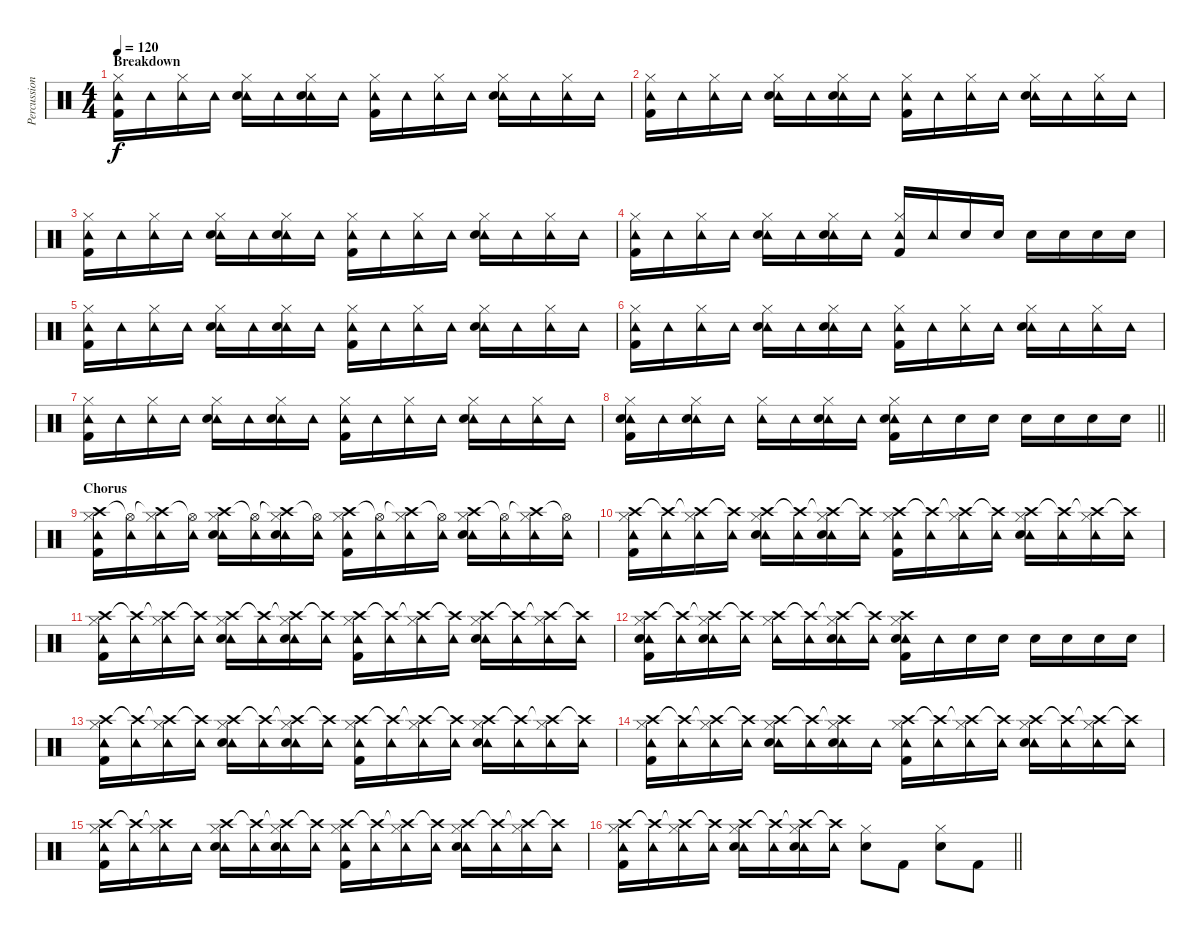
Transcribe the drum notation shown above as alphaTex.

\track ("Percussion" "Percussion") {instrument percussion}
\staff {score}
\articulation defaults
\ts (4 4)
\section ("" "Breakdown")
\tempo 120
\clef neutral
\ks c
("Tambourine (hit)" "Hi-Hat (closed)" "Kick (hit) 2").16{dy f} "Tambourine (hit)".16 ("Tambourine (hit)" "Hi-Hat (closed)").16 "Tambourine (hit)".16 ("Tambourine (hit)" "Hi-Hat (closed)" "Snare (hit) 2").16 "Tambourine (hit)".16 ("Tambourine (hit)" "Hi-Hat (closed)" "Snare (hit) 2").16 "Tambourine (hit)".16 ("Tambourine (hit)" "Hi-Hat (closed)" "Kick (hit) 2").16 "Tambourine (hit)".16 ("Tambourine (hit)" "Hi-Hat (closed)").16 "Tambourine (hit)".16 ("Tambourine (hit)" "Hi-Hat (closed)" "Snare (hit) 2").16 "Tambourine (hit)".16 ("Tambourine (hit)" "Hi-Hat (closed)").16 "Tambourine (hit)".16 |
("Tambourine (hit)" "Hi-Hat (closed)" "Kick (hit) 2").16 "Tambourine (hit)".16 ("Tambourine (hit)" "Hi-Hat (closed)").16 "Tambourine (hit)".16 ("Tambourine (hit)" "Hi-Hat (closed)" "Snare (hit) 2").16 "Tambourine (hit)".16 ("Tambourine (hit)" "Hi-Hat (closed)" "Snare (hit) 2").16 "Tambourine (hit)".16 ("Tambourine (hit)" "Hi-Hat (closed)" "Kick (hit) 2").16 "Tambourine (hit)".16 ("Tambourine (hit)" "Hi-Hat (closed)").16 "Tambourine (hit)".16 ("Tambourine (hit)" "Hi-Hat (closed)" "Snare (hit) 2").16 "Tambourine (hit)".16 ("Tambourine (hit)" "Hi-Hat (closed)").16 "Tambourine (hit)".16 |
("Tambourine (hit)" "Hi-Hat (closed)" "Kick (hit) 2").16 "Tambourine (hit)".16 ("Tambourine (hit)" "Hi-Hat (closed)").16 "Tambourine (hit)".16 ("Tambourine (hit)" "Hi-Hat (closed)" "Snare (hit) 2").16 "Tambourine (hit)".16 ("Tambourine (hit)" "Hi-Hat (closed)" "Snare (hit) 2").16 "Tambourine (hit)".16 ("Tambourine (hit)" "Hi-Hat (closed)" "Kick (hit) 2").16 "Tambourine (hit)".16 ("Tambourine (hit)" "Hi-Hat (closed)").16 "Tambourine (hit)".16 ("Tambourine (hit)" "Hi-Hat (closed)" "Snare (hit) 2").16 "Tambourine (hit)".16 ("Tambourine (hit)" "Hi-Hat (closed)").16 "Tambourine (hit)".16 |
("Tambourine (hit)" "Hi-Hat (closed)" "Kick (hit) 2").16 "Tambourine (hit)".16 ("Tambourine (hit)" "Hi-Hat (closed)").16 "Tambourine (hit)".16 ("Tambourine (hit)" "Hi-Hat (closed)" "Snare (hit) 2").16 "Tambourine (hit)".16 ("Tambourine (hit)" "Hi-Hat (closed)" "Snare (hit) 2").16 "Tambourine (hit)".16 ("Tambourine (hit)" "Hi-Hat (closed)" "Kick (hit) 2").16 "Tambourine (hit)".16 "Snare (hit) 2".16 "Snare (hit) 2".16 "Snare (hit) 2".16 "Snare (hit) 2".16 "Snare (hit) 2".16 "Snare (hit) 2".16 |
("Tambourine (hit)" "Hi-Hat (closed)" "Kick (hit) 2").16 "Tambourine (hit)".16 ("Tambourine (hit)" "Hi-Hat (closed)").16 "Tambourine (hit)".16 ("Tambourine (hit)" "Hi-Hat (closed)" "Snare (hit) 2").16 "Tambourine (hit)".16 ("Tambourine (hit)" "Hi-Hat (closed)" "Snare (hit) 2").16 "Tambourine (hit)".16 ("Tambourine (hit)" "Hi-Hat (closed)" "Kick (hit) 2").16 "Tambourine (hit)".16 ("Tambourine (hit)" "Hi-Hat (closed)").16 "Tambourine (hit)".16 ("Tambourine (hit)" "Hi-Hat (closed)" "Snare (hit) 2").16 "Tambourine (hit)".16 ("Tambourine (hit)" "Hi-Hat (closed)").16 "Tambourine (hit)".16 |
("Tambourine (hit)" "Hi-Hat (closed)" "Kick (hit) 2").16 "Tambourine (hit)".16 ("Tambourine (hit)" "Hi-Hat (closed)").16 "Tambourine (hit)".16 ("Tambourine (hit)" "Hi-Hat (closed)" "Snare (hit) 2").16 "Tambourine (hit)".16 ("Tambourine (hit)" "Hi-Hat (closed)" "Snare (hit) 2").16 "Tambourine (hit)".16 ("Tambourine (hit)" "Hi-Hat (closed)" "Kick (hit) 2").16 "Tambourine (hit)".16 ("Tambourine (hit)" "Hi-Hat (closed)").16 "Tambourine (hit)".16 ("Tambourine (hit)" "Hi-Hat (closed)" "Snare (hit) 2").16 "Tambourine (hit)".16 ("Tambourine (hit)" "Hi-Hat (closed)").16 "Tambourine (hit)".16 |
("Tambourine (hit)" "Hi-Hat (closed)" "Kick (hit) 2").16 "Tambourine (hit)".16 ("Tambourine (hit)" "Hi-Hat (closed)").16 "Tambourine (hit)".16 ("Tambourine (hit)" "Hi-Hat (closed)" "Snare (hit) 2").16 "Tambourine (hit)".16 ("Tambourine (hit)" "Hi-Hat (closed)" "Snare (hit) 2").16 "Tambourine (hit)".16 ("Tambourine (hit)" "Hi-Hat (closed)" "Kick (hit) 2").16 "Tambourine (hit)".16 ("Tambourine (hit)" "Hi-Hat (closed)").16 "Tambourine (hit)".16 ("Tambourine (hit)" "Hi-Hat (closed)" "Snare (hit) 2").16 "Tambourine (hit)".16 ("Tambourine (hit)" "Hi-Hat (closed)").16 "Tambourine (hit)".16 |
\barLineRight lightlight
("Tambourine (hit)" "Hi-Hat (closed)" "Snare (hit) 2" "Kick (hit) 2").16 "Tambourine (hit)".16 ("Tambourine (hit)" "Hi-Hat (closed)" "Snare (hit) 2").16 "Tambourine (hit)".16 ("Tambourine (hit)" "Hi-Hat (closed)").16 "Tambourine (hit)".16 ("Tambourine (hit)" "Hi-Hat (closed)" "Snare (hit) 2").16 "Tambourine (hit)".16 ("Tambourine (hit)" "Hi-Hat (closed)" "Snare (hit) 2" "Kick (hit) 2").16 "Tambourine (hit)".16 "Snare (hit) 2".16 "Snare (hit) 2".16 "Snare (hit) 2".16 "Snare (hit) 2".16 "Snare (hit) 2".16 "Snare (hit) 2".16 |
\section ("" "Chorus")
("Crash high (hit)" "Tambourine (hit)" "Hi-Hat (closed)" "Kick (hit) 2").16 ("Hi-Hat (open)"{t} "Tambourine (hit)").16 ("Crash high (hit)"{t} "Tambourine (hit)" "Hi-Hat (closed)").16 ("Hi-Hat (open)"{t} "Tambourine (hit)").16 ("Crash high (hit)" "Tambourine (hit)" "Hi-Hat (closed)" "Snare (hit) 2").16 ("Hi-Hat (open)"{t} "Tambourine (hit)").16 ("Crash high (hit)"{t} "Tambourine (hit)" "Hi-Hat (closed)" "Snare (hit) 2").16 ("Hi-Hat (open)"{t} "Tambourine (hit)").16 ("Crash high (hit)" "Tambourine (hit)" "Hi-Hat (closed)" "Kick (hit) 2").16 ("Hi-Hat (open)"{t} "Tambourine (hit)").16 ("Crash high (hit)"{t} "Tambourine (hit)" "Hi-Hat (closed)").16 ("Hi-Hat (open)"{t} "Tambourine (hit)").16 ("Crash high (hit)" "Tambourine (hit)" "Hi-Hat (closed)" "Snare (hit) 2").16 ("Hi-Hat (open)"{t} "Tambourine (hit)").16 ("Crash high (hit)"{t} "Tambourine (hit)" "Hi-Hat (closed)").16 ("Hi-Hat (open)"{t} "Tambourine (hit)").16 |
("Crash high (hit)" "Tambourine (hit)" "Hi-Hat (closed)" "Kick (hit) 2").16 ("Crash high (hit)"{t} "Tambourine (hit)").16 ("Crash high (hit)"{t} "Tambourine (hit)" "Hi-Hat (closed)").16 ("Crash high (hit)"{t} "Tambourine (hit)").16 ("Crash high (hit)" "Tambourine (hit)" "Hi-Hat (closed)" "Snare (hit) 2").16 ("Crash high (hit)"{t} "Tambourine (hit)").16 ("Crash high (hit)"{t} "Tambourine (hit)" "Hi-Hat (closed)" "Snare (hit) 2").16 ("Crash high (hit)"{t} "Tambourine (hit)").16 ("Crash high (hit)" "Tambourine (hit)" "Hi-Hat (closed)" "Kick (hit) 2").16 ("Crash high (hit)"{t} "Tambourine (hit)").16 ("Crash high (hit)"{t} "Tambourine (hit)" "Hi-Hat (closed)").16 ("Crash high (hit)"{t} "Tambourine (hit)").16 ("Crash high (hit)" "Tambourine (hit)" "Hi-Hat (closed)" "Snare (hit) 2").16 ("Crash high (hit)"{t} "Tambourine (hit)").16 ("Crash high (hit)"{t} "Tambourine (hit)" "Hi-Hat (closed)").16 ("Crash high (hit)"{t} "Tambourine (hit)").16 |
("Crash high (hit)" "Tambourine (hit)" "Hi-Hat (closed)" "Kick (hit) 2").16 ("Crash high (hit)"{t} "Tambourine (hit)").16 ("Crash high (hit)"{t} "Tambourine (hit)" "Hi-Hat (closed)").16 ("Crash high (hit)"{t} "Tambourine (hit)").16 ("Crash high (hit)" "Tambourine (hit)" "Hi-Hat (closed)" "Snare (hit) 2").16 ("Crash high (hit)"{t} "Tambourine (hit)").16 ("Crash high (hit)"{t} "Tambourine (hit)" "Hi-Hat (closed)" "Snare (hit) 2").16 ("Crash high (hit)"{t} "Tambourine (hit)").16 ("Crash high (hit)" "Tambourine (hit)" "Hi-Hat (closed)" "Kick (hit) 2").16 ("Crash high (hit)"{t} "Tambourine (hit)").16 ("Crash high (hit)"{t} "Tambourine (hit)" "Hi-Hat (closed)").16 ("Crash high (hit)"{t} "Tambourine (hit)").16 ("Crash high (hit)" "Tambourine (hit)" "Hi-Hat (closed)" "Snare (hit) 2").16 ("Crash high (hit)"{t} "Tambourine (hit)").16 ("Crash high (hit)"{t} "Tambourine (hit)" "Hi-Hat (closed)").16 ("Crash high (hit)"{t} "Tambourine (hit)").16 |
("Crash high (hit)" "Tambourine (hit)" "Hi-Hat (closed)" "Snare (hit) 2" "Kick (hit) 2").16 ("Crash high (hit)"{t} "Tambourine (hit)").16 ("Crash high (hit)"{t} "Tambourine (hit)" "Hi-Hat (closed)" "Snare (hit) 2").16 ("Crash high (hit)"{t} "Tambourine (hit)").16 ("Crash high (hit)" "Tambourine (hit)" "Hi-Hat (closed)").16 ("Crash high (hit)"{t} "Tambourine (hit)").16 ("Crash high (hit)"{t} "Tambourine (hit)" "Hi-Hat (closed)" "Snare (hit) 2").16 ("Crash high (hit)"{t} "Tambourine (hit)").16 ("Crash high (hit)" "Tambourine (hit)" "Hi-Hat (closed)" "Snare (hit) 2" "Kick (hit) 2").16 "Tambourine (hit)".16 "Snare (hit) 2".16 "Snare (hit) 2".16 "Snare (hit) 2".16 "Snare (hit) 2".16 "Snare (hit) 2".16 "Snare (hit) 2".16 |
("Crash high (hit)" "Tambourine (hit)" "Hi-Hat (closed)" "Kick (hit) 2").16 ("Crash high (hit)"{t} "Tambourine (hit)").16 ("Crash high (hit)"{t} "Tambourine (hit)" "Hi-Hat (closed)").16 ("Crash high (hit)"{t} "Tambourine (hit)").16 ("Crash high (hit)" "Tambourine (hit)" "Hi-Hat (closed)" "Snare (hit) 2").16 ("Crash high (hit)"{t} "Tambourine (hit)").16 ("Crash high (hit)"{t} "Tambourine (hit)" "Hi-Hat (closed)" "Snare (hit) 2").16 ("Crash high (hit)"{t} "Tambourine (hit)").16 ("Crash high (hit)" "Tambourine (hit)" "Hi-Hat (closed)" "Kick (hit) 2").16 ("Crash high (hit)"{t} "Tambourine (hit)").16 ("Crash high (hit)"{t} "Tambourine (hit)" "Hi-Hat (closed)").16 ("Crash high (hit)"{t} "Tambourine (hit)").16 ("Crash high (hit)" "Tambourine (hit)" "Hi-Hat (closed)" "Snare (hit) 2").16 ("Crash high (hit)"{t} "Tambourine (hit)").16 ("Crash high (hit)"{t} "Tambourine (hit)" "Hi-Hat (closed)").16 ("Crash high (hit)"{t} "Tambourine (hit)").16 |
("Crash high (hit)" "Tambourine (hit)" "Hi-Hat (closed)" "Kick (hit) 2").16 ("Crash high (hit)"{t} "Tambourine (hit)").16 ("Crash high (hit)"{t} "Tambourine (hit)" "Hi-Hat (closed)").16 ("Crash high (hit)"{t} "Tambourine (hit)").16 ("Crash high (hit)" "Tambourine (hit)" "Hi-Hat (closed)" "Snare (hit) 2").16 ("Crash high (hit)"{t} "Tambourine (hit)").16 ("Crash high (hit)"{t} "Tambourine (hit)" "Hi-Hat (closed)" "Snare (hit) 2").16 "Tambourine (hit)".16 ("Crash high (hit)" "Tambourine (hit)" "Hi-Hat (closed)" "Kick (hit) 2").16 ("Crash high (hit)"{t} "Tambourine (hit)").16 ("Crash high (hit)"{t} "Tambourine (hit)" "Hi-Hat (closed)").16 ("Crash high (hit)"{t} "Tambourine (hit)").16 ("Crash high (hit)" "Tambourine (hit)" "Hi-Hat (closed)" "Snare (hit) 2").16 ("Crash high (hit)"{t} "Tambourine (hit)").16 ("Crash high (hit)"{t} "Tambourine (hit)" "Hi-Hat (closed)").16 ("Crash high (hit)"{t} "Tambourine (hit)").16 |
("Crash high (hit)" "Tambourine (hit)" "Hi-Hat (closed)" "Kick (hit) 2").16 ("Crash high (hit)"{t} "Tambourine (hit)").16 ("Crash high (hit)"{t} "Tambourine (hit)" "Hi-Hat (closed)").16 "Tambourine (hit)".16 ("Crash high (hit)" "Tambourine (hit)" "Hi-Hat (closed)" "Snare (hit) 2").16 ("Crash high (hit)"{t} "Tambourine (hit)").16 ("Crash high (hit)"{t} "Tambourine (hit)" "Hi-Hat (closed)" "Snare (hit) 2").16 ("Crash high (hit)"{t} "Tambourine (hit)").16 ("Crash high (hit)" "Tambourine (hit)" "Hi-Hat (closed)" "Kick (hit) 2").16 ("Crash high (hit)"{t} "Tambourine (hit)").16 ("Crash high (hit)"{t} "Tambourine (hit)" "Hi-Hat (closed)").16 ("Crash high (hit)"{t} "Tambourine (hit)").16 ("Crash high (hit)" "Tambourine (hit)" "Hi-Hat (closed)" "Snare (hit) 2").16 ("Crash high (hit)"{t} "Tambourine (hit)").16 ("Crash high (hit)"{t} "Tambourine (hit)" "Hi-Hat (closed)").16 ("Crash high (hit)"{t} "Tambourine (hit)").16 |
\barLineRight lightlight
("Crash high (hit)" "Tambourine (hit)" "Hi-Hat (closed)" "Kick (hit) 2").16 ("Crash high (hit)"{t} "Tambourine (hit)").16 ("Crash high (hit)"{t} "Tambourine (hit)" "Hi-Hat (closed)").16 ("Crash high (hit)"{t} "Tambourine (hit)").16 ("Crash high (hit)" "Tambourine (hit)" "Hi-Hat (closed)" "Snare (hit) 2").16 ("Crash high (hit)"{t} "Tambourine (hit)").16 ("Crash high (hit)"{t} "Tambourine (hit)" "Hi-Hat (closed)" "Snare (hit) 2").16 ("Crash high (hit)"{t} "Tambourine (hit)").16 ("Hi-Hat (closed)" "Snare (hit) 2").8 "Kick (hit) 2".8 ("Hi-Hat (closed)" "Snare (hit) 2").8 "Kick (hit) 2".8
